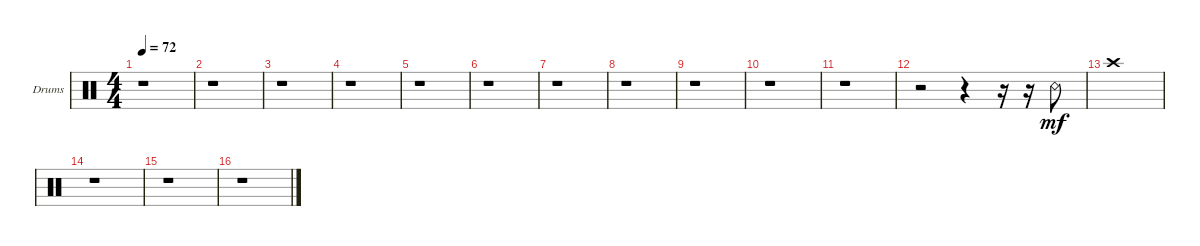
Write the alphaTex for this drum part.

\defaultSystemsLayout 4
\bracketExtendMode groupsimilarinstruments
\firstSystemTrackNameOrientation horizontal
\otherSystemsTrackNameOrientation horizontal
\track ("Drumkit" "Drums") {instrument percussion}
\staff {score}
\articulation defaults
\ts (4 4)
\tempo 72
\clef neutral
\ks c
r.1{dy mf} |
r.1 |
r.1 |
r.1 |
r.1 |
r.1 |
r.1 |
r.1 |
r.1 |
r.1 |
r.1 |
r.2 r.4 r.16 r.16 "Snare (rim shot)".8 |
"Crash high (hit)".1 |
r.1 |
r.1 |
r.1
